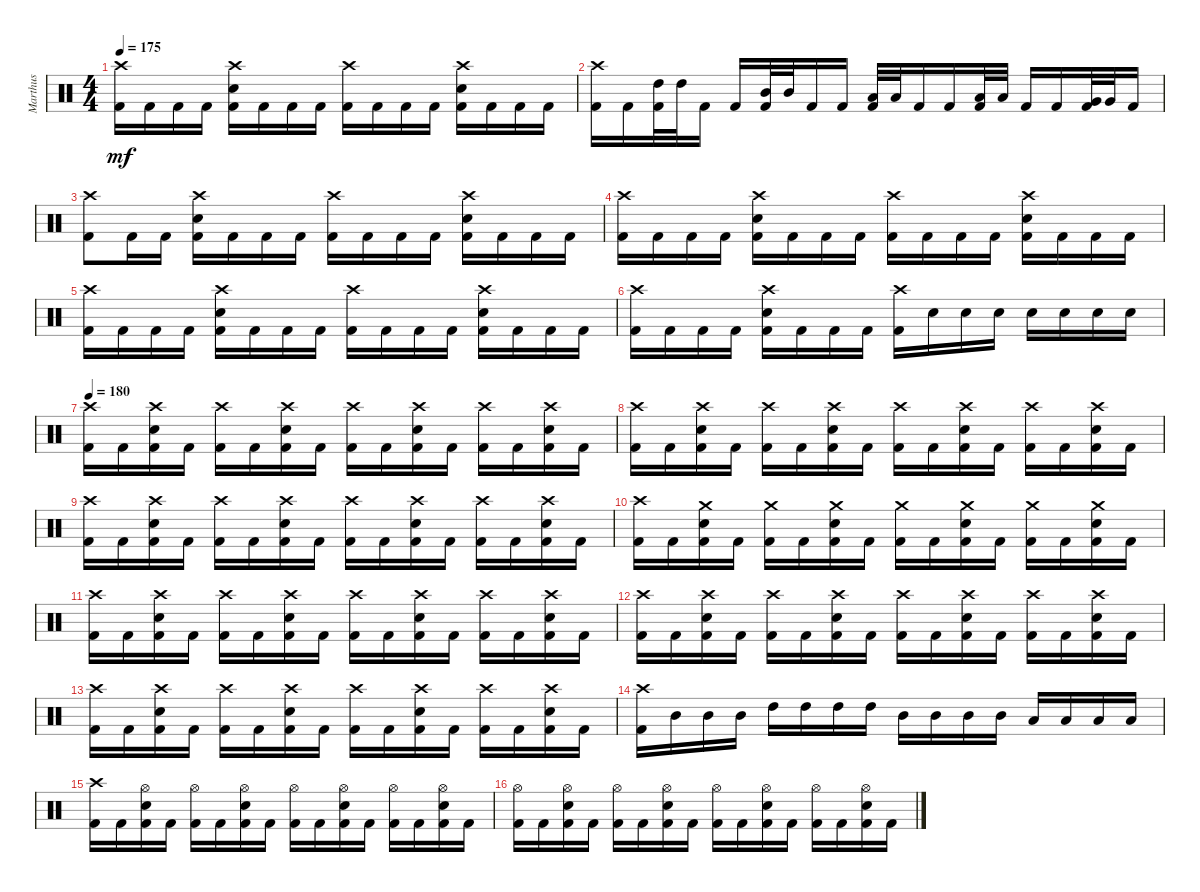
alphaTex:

\track ("Marthus" "Marthus") {instrument percussion}
\staff {score}
\articulation defaults
\ts (4 4)
\tempo 175
\clef neutral
\ks c
("Crash high (hit)" "Kick (hit) 2").16{dy mf} "Kick (hit) 2".16 "Kick (hit) 2".16 "Kick (hit) 2".16 ("Crash high (hit)" "Electric Snare (hit)" "Kick (hit) 2").16 "Kick (hit) 2".16 "Kick (hit) 2".16 "Kick (hit) 2".16 ("Crash high (hit)" "Kick (hit) 2").16 "Kick (hit) 2".16 "Kick (hit) 2".16 "Kick (hit) 2".16 ("Crash high (hit)" "Electric Snare (hit)" "Kick (hit) 2").16 "Kick (hit) 2".16 "Kick (hit) 2".16 "Kick (hit) 2".16 |
("Crash high (hit)" "Kick (hit) 2").16 "Kick (hit) 2".16 ("High Tom (hit)" "Kick (hit) 2").32 "High Tom (hit)".32 "Kick (hit) 2".16 "Kick (hit) 2".16 ("Mid Tom (hit)" "Kick (hit) 2").32 "Mid Tom (hit)".32 "Kick (hit) 2".16 "Kick (hit) 2".16 ("Low Tom (hit)" "Kick (hit) 2").32 "Low Tom (hit)".32 "Kick (hit) 2".16 "Kick (hit) 2".16 ("Low Tom (hit)" "Kick (hit) 2").32 "Low Tom (hit)".32 "Kick (hit) 2".16 "Kick (hit) 2".16 ("Very Low Tom (hit)" "Kick (hit) 2").32 "Very Low Tom (hit)".32 "Kick (hit) 2".16 |
("Crash high (hit)" "Kick (hit) 2").8 "Kick (hit) 2".16 "Kick (hit) 2".16 ("Crash high (hit)" "Electric Snare (hit)" "Kick (hit) 2").16 "Kick (hit) 2".16 "Kick (hit) 2".16 "Kick (hit) 2".16 ("Crash high (hit)" "Kick (hit) 2").16 "Kick (hit) 2".16 "Kick (hit) 2".16 "Kick (hit) 2".16 ("Crash high (hit)" "Electric Snare (hit)" "Kick (hit) 2").16 "Kick (hit) 2".16 "Kick (hit) 2".16 "Kick (hit) 2".16 |
("Crash high (hit)" "Kick (hit) 2").16 "Kick (hit) 2".16 "Kick (hit) 2".16 "Kick (hit) 2".16 ("Crash high (hit)" "Electric Snare (hit)" "Kick (hit) 2").16 "Kick (hit) 2".16 "Kick (hit) 2".16 "Kick (hit) 2".16 ("Crash high (hit)" "Kick (hit) 2").16 "Kick (hit) 2".16 "Kick (hit) 2".16 "Kick (hit) 2".16 ("Crash high (hit)" "Electric Snare (hit)" "Kick (hit) 2").16 "Kick (hit) 2".16 "Kick (hit) 2".16 "Kick (hit) 2".16 |
("Crash high (hit)" "Kick (hit) 2").16 "Kick (hit) 2".16 "Kick (hit) 2".16 "Kick (hit) 2".16 ("Crash high (hit)" "Electric Snare (hit)" "Kick (hit) 2").16 "Kick (hit) 2".16 "Kick (hit) 2".16 "Kick (hit) 2".16 ("Crash high (hit)" "Kick (hit) 2").16 "Kick (hit) 2".16 "Kick (hit) 2".16 "Kick (hit) 2".16 ("Crash high (hit)" "Electric Snare (hit)" "Kick (hit) 2").16 "Kick (hit) 2".16 "Kick (hit) 2".16 "Kick (hit) 2".16 |
("Crash high (hit)" "Kick (hit) 2").16 "Kick (hit) 2".16 "Kick (hit) 2".16 "Kick (hit) 2".16 ("Crash high (hit)" "Electric Snare (hit)" "Kick (hit) 2").16 "Kick (hit) 2".16 "Kick (hit) 2".16 "Kick (hit) 2".16 ("Crash high (hit)" "Kick (hit) 2").16 "Electric Snare (hit)".16 "Electric Snare (hit)".16 "Electric Snare (hit)".16 "Electric Snare (hit)".16 "Electric Snare (hit)".16 "Electric Snare (hit)".16 "Electric Snare (hit)".16 |
\tempo 180
("Crash high (hit)" "Kick (hit) 2").16 "Kick (hit) 2".16 ("Crash high (hit)" "Electric Snare (hit)" "Kick (hit) 2").16 "Kick (hit) 2".16 ("Crash high (hit)" "Kick (hit) 2").16 "Kick (hit) 2".16 ("Crash high (hit)" "Electric Snare (hit)" "Kick (hit) 2").16 "Kick (hit) 2".16 ("Crash high (hit)" "Kick (hit) 2").16 "Kick (hit) 2".16 ("Crash high (hit)" "Electric Snare (hit)" "Kick (hit) 2").16 "Kick (hit) 2".16 ("Crash high (hit)" "Kick (hit) 2").16 "Kick (hit) 2".16 ("Crash high (hit)" "Electric Snare (hit)" "Kick (hit) 2").16 "Kick (hit) 2".16 |
("Crash high (hit)" "Kick (hit) 2").16 "Kick (hit) 2".16 ("Crash high (hit)" "Electric Snare (hit)" "Kick (hit) 2").16 "Kick (hit) 2".16 ("Crash high (hit)" "Kick (hit) 2").16 "Kick (hit) 2".16 ("Crash high (hit)" "Electric Snare (hit)" "Kick (hit) 2").16 "Kick (hit) 2".16 ("Crash high (hit)" "Kick (hit) 2").16 "Kick (hit) 2".16 ("Crash high (hit)" "Electric Snare (hit)" "Kick (hit) 2").16 "Kick (hit) 2".16 ("Crash high (hit)" "Kick (hit) 2").16 "Kick (hit) 2".16 ("Crash high (hit)" "Electric Snare (hit)" "Kick (hit) 2").16 "Kick (hit) 2".16 |
("Crash high (hit)" "Kick (hit) 2").16 "Kick (hit) 2".16 ("Crash high (hit)" "Electric Snare (hit)" "Kick (hit) 2").16 "Kick (hit) 2".16 ("Crash high (hit)" "Kick (hit) 2").16 "Kick (hit) 2".16 ("Crash high (hit)" "Electric Snare (hit)" "Kick (hit) 2").16 "Kick (hit) 2".16 ("Crash high (hit)" "Kick (hit) 2").16 "Kick (hit) 2".16 ("Crash high (hit)" "Electric Snare (hit)" "Kick (hit) 2").16 "Kick (hit) 2".16 ("Crash high (hit)" "Kick (hit) 2").16 "Kick (hit) 2".16 ("Crash high (hit)" "Electric Snare (hit)" "Kick (hit) 2").16 "Kick (hit) 2".16 |
("Crash high (hit)" "Kick (hit) 2").16 "Kick (hit) 2".16 ("Crash medium (hit)" "Electric Snare (hit)" "Kick (hit) 2").16 "Kick (hit) 2".16 ("Crash medium (hit)" "Kick (hit) 2").16 "Kick (hit) 2".16 ("Crash medium (hit)" "Electric Snare (hit)" "Kick (hit) 2").16 "Kick (hit) 2".16 ("Crash medium (hit)" "Kick (hit) 2").16 "Kick (hit) 2".16 ("Crash medium (hit)" "Electric Snare (hit)" "Kick (hit) 2").16 "Kick (hit) 2".16 ("Crash medium (hit)" "Kick (hit) 2").16 "Kick (hit) 2".16 ("Crash medium (hit)" "Electric Snare (hit)" "Kick (hit) 2").16 "Kick (hit) 2".16 |
("Crash high (hit)" "Kick (hit) 2").16 "Kick (hit) 2".16 ("Crash high (hit)" "Electric Snare (hit)" "Kick (hit) 2").16 "Kick (hit) 2".16 ("Crash high (hit)" "Kick (hit) 2").16 "Kick (hit) 2".16 ("Crash high (hit)" "Electric Snare (hit)" "Kick (hit) 2").16 "Kick (hit) 2".16 ("Crash high (hit)" "Kick (hit) 2").16 "Kick (hit) 2".16 ("Crash high (hit)" "Electric Snare (hit)" "Kick (hit) 2").16 "Kick (hit) 2".16 ("Crash high (hit)" "Kick (hit) 2").16 "Kick (hit) 2".16 ("Crash high (hit)" "Electric Snare (hit)" "Kick (hit) 2").16 "Kick (hit) 2".16 |
("Crash high (hit)" "Kick (hit) 2").16 "Kick (hit) 2".16 ("Crash high (hit)" "Electric Snare (hit)" "Kick (hit) 2").16 "Kick (hit) 2".16 ("Crash high (hit)" "Kick (hit) 2").16 "Kick (hit) 2".16 ("Crash high (hit)" "Electric Snare (hit)" "Kick (hit) 2").16 "Kick (hit) 2".16 ("Crash high (hit)" "Kick (hit) 2").16 "Kick (hit) 2".16 ("Crash high (hit)" "Electric Snare (hit)" "Kick (hit) 2").16 "Kick (hit) 2".16 ("Crash high (hit)" "Kick (hit) 2").16 "Kick (hit) 2".16 ("Crash high (hit)" "Electric Snare (hit)" "Kick (hit) 2").16 "Kick (hit) 2".16 |
("Crash high (hit)" "Kick (hit) 2").16 "Kick (hit) 2".16 ("Crash high (hit)" "Electric Snare (hit)" "Kick (hit) 2").16 "Kick (hit) 2".16 ("Crash high (hit)" "Kick (hit) 2").16 "Kick (hit) 2".16 ("Crash high (hit)" "Electric Snare (hit)" "Kick (hit) 2").16 "Kick (hit) 2".16 ("Crash high (hit)" "Kick (hit) 2").16 "Kick (hit) 2".16 ("Crash high (hit)" "Electric Snare (hit)" "Kick (hit) 2").16 "Kick (hit) 2".16 ("Crash high (hit)" "Kick (hit) 2").16 "Kick (hit) 2".16 ("Crash high (hit)" "Electric Snare (hit)" "Kick (hit) 2").16 "Kick (hit) 2".16 |
("Crash high (hit)" "Kick (hit) 2").16 "Mid Tom (hit)".16 "Mid Tom (hit)".16 "Mid Tom (hit)".16 "High Tom (hit)".16 "High Tom (hit)".16 "High Tom (hit)".16 "High Tom (hit)".16 "Mid Tom (hit)".16 "Mid Tom (hit)".16 "Mid Tom (hit)".16 "Mid Tom (hit)".16 "Low Tom (hit)".16 "Low Tom (hit)".16 "Low Tom (hit)".16 "Low Tom (hit)".16 |
("Crash high (hit)" "Kick (hit) 2").16 "Kick (hit) 2".16 ("Hi-Hat (open)" "Electric Snare (hit)" "Kick (hit) 2").16 "Kick (hit) 2".16 ("Hi-Hat (open)" "Kick (hit) 2").16 "Kick (hit) 2".16 ("Hi-Hat (open)" "Electric Snare (hit)" "Kick (hit) 2").16 "Kick (hit) 2".16 ("Hi-Hat (open)" "Kick (hit) 2").16 "Kick (hit) 2".16 ("Hi-Hat (open)" "Electric Snare (hit)" "Kick (hit) 2").16 "Kick (hit) 2".16 ("Hi-Hat (open)" "Kick (hit) 2").16 "Kick (hit) 2".16 ("Hi-Hat (open)" "Electric Snare (hit)" "Kick (hit) 2").16 "Kick (hit) 2".16 |
("Hi-Hat (open)" "Kick (hit) 2").16 "Kick (hit) 2".16 ("Hi-Hat (open)" "Electric Snare (hit)" "Kick (hit) 2").16 "Kick (hit) 2".16 ("Hi-Hat (open)" "Kick (hit) 2").16 "Kick (hit) 2".16 ("Hi-Hat (open)" "Electric Snare (hit)" "Kick (hit) 2").16 "Kick (hit) 2".16 ("Hi-Hat (open)" "Kick (hit) 2").16 "Kick (hit) 2".16 ("Hi-Hat (open)" "Electric Snare (hit)" "Kick (hit) 2").16 "Kick (hit) 2".16 ("Hi-Hat (open)" "Kick (hit) 2").16 "Kick (hit) 2".16 ("Hi-Hat (open)" "Electric Snare (hit)" "Kick (hit) 2").16 "Kick (hit) 2".16
